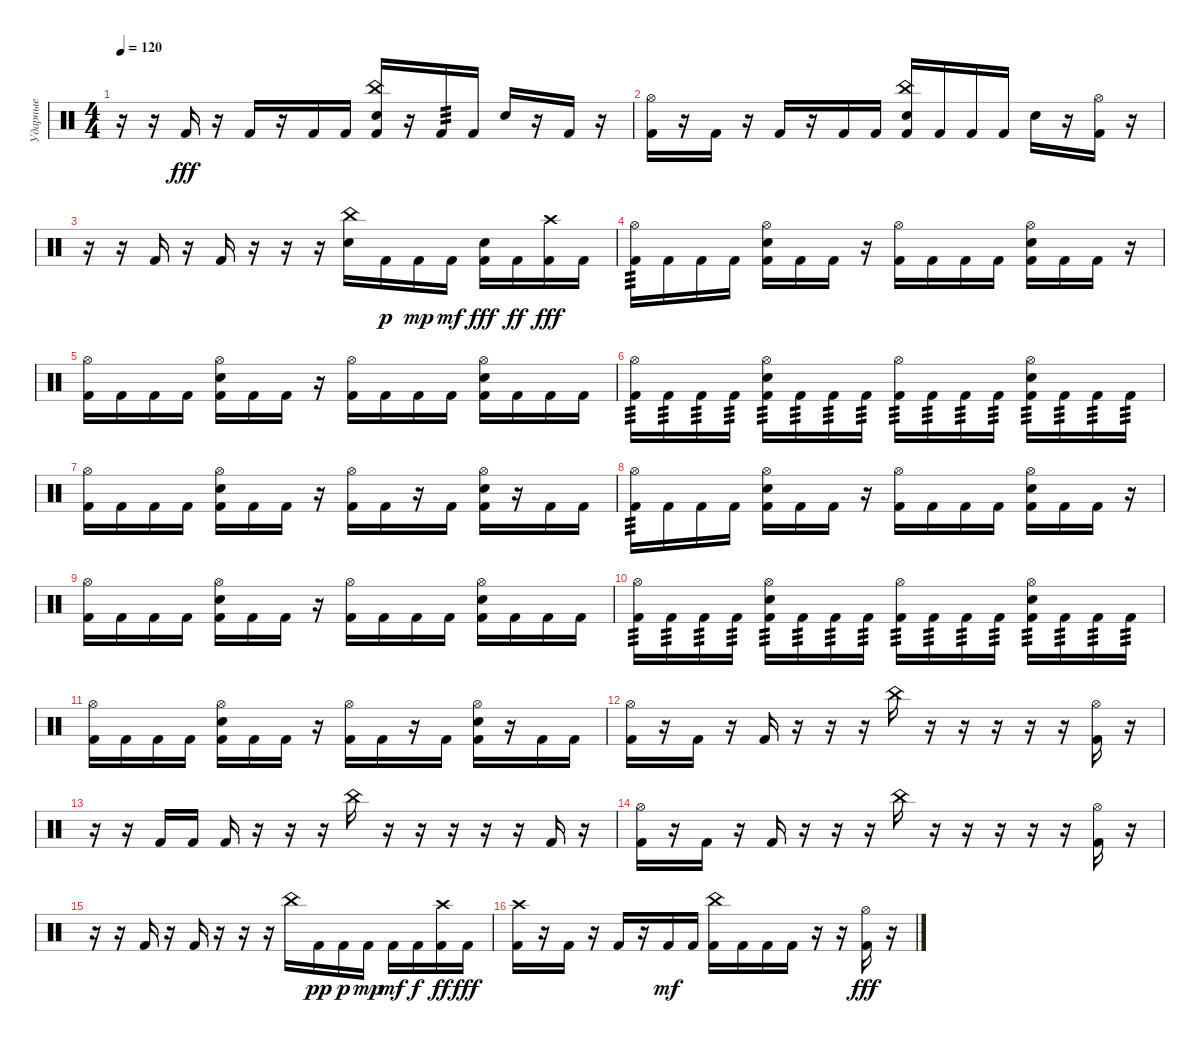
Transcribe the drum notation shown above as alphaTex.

\track ("Ударные" "Ударные") {instrument percussion}
\staff {score}
\articulation defaults
\ts (4 4)
\tempo 120
\clef neutral
\ks c
r.16{dy fff} r.16 "Kick (hit) 2".16 r.16 "Kick (hit) 2".16 r.16 "Kick (hit) 2".16 "Kick (hit) 2".16 ("China (hit)" "Snare (hit) 2" "Kick (hit) 2").16 r.16 "Kick (hit) 2".16{tp 3} "Kick (hit) 2".16 "Snare (hit) 2".16 r.16 "Kick (hit) 2".16 r.16 |
("Hi-Hat (open)" "Kick (hit) 2").16 r.16 "Kick (hit) 2".16 r.16 "Kick (hit) 2".16 r.16 "Kick (hit) 2".16 "Kick (hit) 2".16 ("China (hit)" "Snare (hit) 2" "Kick (hit) 2").16 "Kick (hit) 2".16 "Kick (hit) 2".16 "Kick (hit) 2".16 "Snare (hit) 2".16 r.16 ("Hi-Hat (open)" "Kick (hit) 2").16 r.16 |
r.16 r.16 "Kick (hit) 2".16 r.16 "Kick (hit) 2".16 r.16 r.16 r.16 ("China (hit)" "Snare (hit) 2").16 "Kick (hit) 2".16{dy p} "Kick (hit) 2".16{dy mp} "Kick (hit) 2".16{dy mf} ("Snare (hit) 2" "Kick (hit) 2").16{dy fff} "Kick (hit) 2".16{dy ff} ("Crash high (hit)" "Kick (hit) 2").16{dy fff} "Kick (hit) 2".16 |
("Hi-Hat (open)" "Kick (hit) 2").16{tp 3} "Kick (hit) 2".16 "Kick (hit) 2".16 "Kick (hit) 2".16 ("Hi-Hat (open)" "Snare (hit) 2" "Kick (hit) 2").16 "Kick (hit) 2".16 "Kick (hit) 2".16 r.16 ("Hi-Hat (open)" "Kick (hit) 2").16 "Kick (hit) 2".16 "Kick (hit) 2".16 "Kick (hit) 2".16 ("Hi-Hat (open)" "Snare (hit) 2" "Kick (hit) 2").16 "Kick (hit) 2".16 "Kick (hit) 2".16 r.16 |
("Hi-Hat (open)" "Kick (hit) 2").16 "Kick (hit) 2".16 "Kick (hit) 2".16 "Kick (hit) 2".16 ("Hi-Hat (open)" "Snare (hit) 2" "Kick (hit) 2").16 "Kick (hit) 2".16 "Kick (hit) 2".16 r.16 ("Hi-Hat (open)" "Kick (hit) 2").16 "Kick (hit) 2".16 "Kick (hit) 2".16 "Kick (hit) 2".16 ("Hi-Hat (open)" "Snare (hit) 2" "Kick (hit) 2").16 "Kick (hit) 2".16 "Kick (hit) 2".16 "Kick (hit) 2".16 |
("Hi-Hat (open)" "Kick (hit) 2").16{tp 3} "Kick (hit) 2".16{tp 3} "Kick (hit) 2".16{tp 3} "Kick (hit) 2".16{tp 3} ("Hi-Hat (open)" "Snare (hit) 2" "Kick (hit) 2").16{tp 3} "Kick (hit) 2".16{tp 3} "Kick (hit) 2".16{tp 3} "Kick (hit) 2".16{tp 3} ("Hi-Hat (open)" "Kick (hit) 2").16{tp 3} "Kick (hit) 2".16{tp 3} "Kick (hit) 2".16{tp 3} "Kick (hit) 2".16{tp 3} ("Hi-Hat (open)" "Snare (hit) 2" "Kick (hit) 2").16{tp 3} "Kick (hit) 2".16{tp 3} "Kick (hit) 2".16{tp 3} "Kick (hit) 2".16{tp 3} |
("Hi-Hat (open)" "Kick (hit) 2").16 "Kick (hit) 2".16 "Kick (hit) 2".16 "Kick (hit) 2".16 ("Hi-Hat (open)" "Snare (hit) 2" "Kick (hit) 2").16 "Kick (hit) 2".16 "Kick (hit) 2".16 r.16 ("Hi-Hat (open)" "Kick (hit) 2").16 "Kick (hit) 2".16 r.16 "Kick (hit) 2".16 ("Hi-Hat (open)" "Snare (hit) 2" "Kick (hit) 2").16 r.16 "Kick (hit) 2".16 "Kick (hit) 2".16 |
("Hi-Hat (open)" "Kick (hit) 2").16{tp 3} "Kick (hit) 2".16 "Kick (hit) 2".16 "Kick (hit) 2".16 ("Hi-Hat (open)" "Snare (hit) 2" "Kick (hit) 2").16 "Kick (hit) 2".16 "Kick (hit) 2".16 r.16 ("Hi-Hat (open)" "Kick (hit) 2").16 "Kick (hit) 2".16 "Kick (hit) 2".16 "Kick (hit) 2".16 ("Hi-Hat (open)" "Snare (hit) 2" "Kick (hit) 2").16 "Kick (hit) 2".16 "Kick (hit) 2".16 r.16 |
("Hi-Hat (open)" "Kick (hit) 2").16 "Kick (hit) 2".16 "Kick (hit) 2".16 "Kick (hit) 2".16 ("Hi-Hat (open)" "Snare (hit) 2" "Kick (hit) 2").16 "Kick (hit) 2".16 "Kick (hit) 2".16 r.16 ("Hi-Hat (open)" "Kick (hit) 2").16 "Kick (hit) 2".16 "Kick (hit) 2".16 "Kick (hit) 2".16 ("Hi-Hat (open)" "Snare (hit) 2" "Kick (hit) 2").16 "Kick (hit) 2".16 "Kick (hit) 2".16 "Kick (hit) 2".16 |
("Hi-Hat (open)" "Kick (hit) 2").16{tp 3} "Kick (hit) 2".16{tp 3} "Kick (hit) 2".16{tp 3} "Kick (hit) 2".16{tp 3} ("Hi-Hat (open)" "Snare (hit) 2" "Kick (hit) 2").16{tp 3} "Kick (hit) 2".16{tp 3} "Kick (hit) 2".16{tp 3} "Kick (hit) 2".16{tp 3} ("Hi-Hat (open)" "Kick (hit) 2").16{tp 3} "Kick (hit) 2".16{tp 3} "Kick (hit) 2".16{tp 3} "Kick (hit) 2".16{tp 3} ("Hi-Hat (open)" "Snare (hit) 2" "Kick (hit) 2").16{tp 3} "Kick (hit) 2".16{tp 3} "Kick (hit) 2".16{tp 3} "Kick (hit) 2".16{tp 3} |
("Hi-Hat (open)" "Kick (hit) 2").16 "Kick (hit) 2".16 "Kick (hit) 2".16 "Kick (hit) 2".16 ("Hi-Hat (open)" "Snare (hit) 2" "Kick (hit) 2").16 "Kick (hit) 2".16 "Kick (hit) 2".16 r.16 ("Hi-Hat (open)" "Kick (hit) 2").16 "Kick (hit) 2".16 r.16 "Kick (hit) 2".16 ("Hi-Hat (open)" "Snare (hit) 2" "Kick (hit) 2").16 r.16 "Kick (hit) 2".16 "Kick (hit) 2".16 |
("Hi-Hat (open)" "Kick (hit) 2").16 r.16 "Kick (hit) 2".16 r.16 "Kick (hit) 2".16 r.16 r.16 r.16 "China (hit)".16 r.16 r.16 r.16 r.16 r.16 ("Hi-Hat (open)" "Kick (hit) 2").16 r.16 |
r.16 r.16 "Kick (hit) 2".16 "Kick (hit) 2".16 "Kick (hit) 2".16 r.16 r.16 r.16 "China (hit)".16 r.16 r.16 r.16 r.16 r.16 "Kick (hit) 2".16 r.16 |
("Hi-Hat (open)" "Kick (hit) 2").16 r.16 "Kick (hit) 2".16 r.16 "Kick (hit) 2".16 r.16 r.16 r.16 "China (hit)".16 r.16 r.16 r.16 r.16 r.16 ("Hi-Hat (open)" "Kick (hit) 2").16 r.16 |
r.16 r.16 "Kick (hit) 2".16 r.16 "Kick (hit) 2".16 r.16 r.16 r.16 "China (hit)".16 "Kick (hit) 2".16{dy pp} "Kick (hit) 2".16{dy p} "Kick (hit) 2".16{dy mp} "Kick (hit) 2".16{dy mf} "Kick (hit) 2".16{dy f} ("Crash high (hit)" "Kick (hit) 2").16{dy ff} "Kick (hit) 2".16{dy fff} |
("Crash high (hit)" "Kick (hit) 2").16 r.16 "Kick (hit) 2".16 r.16 "Kick (hit) 2".16 r.16 "Kick (hit) 2".16{dy mf} "Kick (hit) 2".16 ("China (hit)" "Kick (hit) 2").16 "Kick (hit) 2".16 "Kick (hit) 2".16 "Kick (hit) 2".16 r.16 r.16 ("Hi-Hat (open)" "Kick (hit) 2").16{dy fff} r.16
